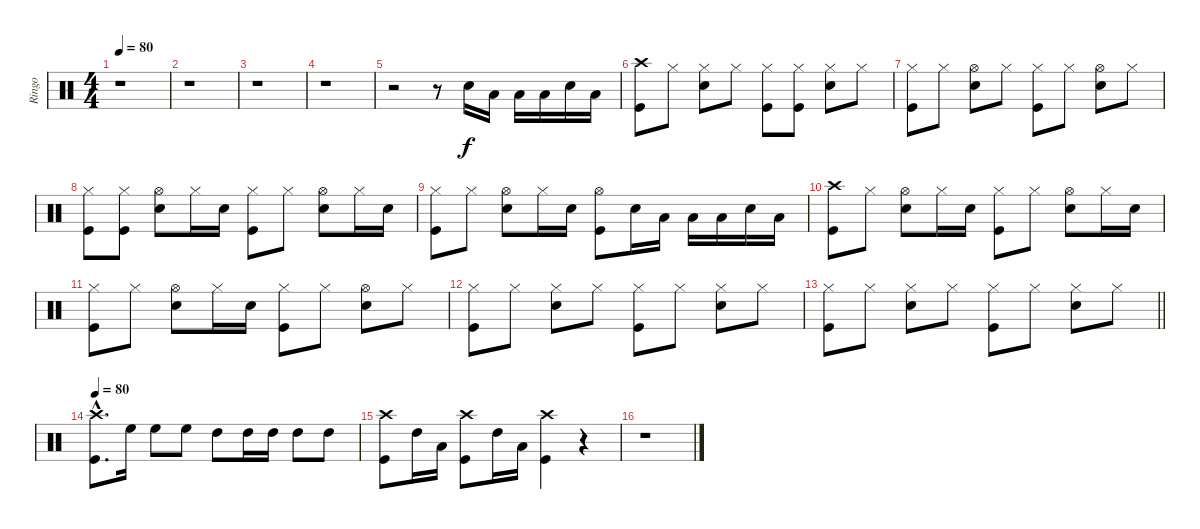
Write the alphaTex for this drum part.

\track ("Ringo" "Ringo") {instrument percussion}
\staff {score}
\articulation defaults
\ts (4 4)
\tempo 80
\clef neutral
\ks c
r.1{dy f} |
r.1 |
r.1 |
r.1 |
r.2 r.8 "Snare (hit) 2".16 "Low Tom (hit)".16 "Low Tom (hit)".16 "Low Tom (hit)".16 "Snare (hit) 2".16 "Low Tom (hit)".16 |
("Crash high (hit)" "Kick (hit)").8 "Hi-Hat (closed)".8 ("Hi-Hat (closed)" "Snare (hit) 2").8 "Hi-Hat (closed)".8 ("Hi-Hat (closed)" "Kick (hit)").8 ("Hi-Hat (closed)" "Kick (hit)").8 ("Hi-Hat (closed)" "Snare (hit) 2").8 "Hi-Hat (closed)".8 |
("Hi-Hat (closed)" "Kick (hit)").8 "Hi-Hat (closed)".8 ("Hi-Hat (open)" "Snare (hit) 2").8 "Hi-Hat (closed)".8 ("Hi-Hat (closed)" "Kick (hit)").8 "Hi-Hat (closed)".8 ("Hi-Hat (open)" "Snare (hit) 2").8 "Hi-Hat (closed)".8 |
("Hi-Hat (closed)" "Kick (hit)").8 ("Hi-Hat (closed)" "Kick (hit)").8 ("Hi-Hat (open)" "Snare (hit) 2").8 "Hi-Hat (closed)".16 "Snare (hit) 2".16 ("Hi-Hat (closed)" "Kick (hit)").8 "Hi-Hat (closed)".8 ("Hi-Hat (open)" "Snare (hit) 2").8 "Hi-Hat (closed)".16 "Snare (hit) 2".16 |
("Hi-Hat (closed)" "Kick (hit)").8 "Hi-Hat (closed)".8 ("Hi-Hat (open)" "Snare (hit) 2").8 "Hi-Hat (closed)".16 "Snare (hit) 2".16 ("Hi-Hat (open)" "Kick (hit)").8 "Snare (hit) 2".16 "Low Tom (hit)".16 "Low Tom (hit)".16 "Low Tom (hit)".16 "Snare (hit) 2".16 "Low Tom (hit)".16 |
("Crash high (hit)" "Kick (hit)").8 "Hi-Hat (closed)".8 ("Hi-Hat (open)" "Snare (hit) 2").8 "Hi-Hat (closed)".16 "Snare (hit) 2".16 ("Hi-Hat (closed)" "Kick (hit)").8 "Hi-Hat (closed)".8 ("Hi-Hat (open)" "Snare (hit) 2").8 "Hi-Hat (closed)".16 "Snare (hit) 2".16 |
("Hi-Hat (closed)" "Kick (hit)").8 "Hi-Hat (closed)".8 ("Hi-Hat (open)" "Snare (hit) 2").8 "Hi-Hat (closed)".16 "Snare (hit) 2".16 ("Hi-Hat (closed)" "Kick (hit)").8 "Hi-Hat (closed)".8 ("Hi-Hat (open)" "Snare (hit) 2").8 "Hi-Hat (closed)".8 |
("Hi-Hat (closed)" "Kick (hit)").8 "Hi-Hat (closed)".8 ("Hi-Hat (closed)" "Snare (hit) 2").8 "Hi-Hat (closed)".8 ("Hi-Hat (closed)" "Kick (hit)").8 "Hi-Hat (closed)".8 ("Hi-Hat (closed)" "Snare (hit) 2").8 "Hi-Hat (closed)".8 |
\barLineRight lightlight
("Hi-Hat (closed)" "Kick (hit)").8 "Hi-Hat (closed)".8 ("Hi-Hat (closed)" "Snare (hit) 2").8 "Hi-Hat (closed)".8 ("Hi-Hat (closed)" "Kick (hit)").8 "Hi-Hat (closed)".8 ("Hi-Hat (closed)" "Snare (hit) 2").8 "Hi-Hat (closed)".8 |
\tempo 80
("Crash high (hit)"{hac} "Kick (hit)"{hac}).8{d} "High Floor Tom (hit)".16 "High Floor Tom (hit)".8 "High Floor Tom (hit)".8 "High Tom (hit)".8 "High Tom (hit)".16 "High Tom (hit)".16 "High Tom (hit)".8 "High Tom (hit)".8 |
("Crash high (hit)" "Kick (hit)").8 "High Tom (hit)".16 "Low Tom (hit)".16 ("Crash high (hit)" "Kick (hit)").8 "High Tom (hit)".16 "Low Tom (hit)".16 ("Crash high (hit)" "Kick (hit)").4 r.4 |
r.1
